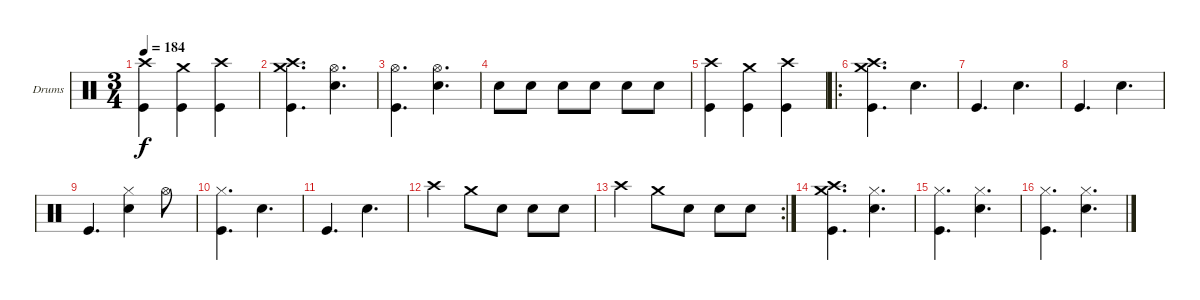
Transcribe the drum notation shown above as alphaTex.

\bracketExtendMode groupsimilarinstruments
\firstSystemTrackNameOrientation horizontal
\otherSystemsTrackNameOrientation horizontal
\track ("Drumkit" "Drums") {instrument percussion}
\staff {score}
\articulation defaults
\ts (3 4)
\tempo 184
\clef neutral
\ks c
("Crash high (hit)" "Kick (hit)").4{dy f} ("Crash medium (hit)" "Kick (hit)").4 ("Crash high (hit)" "Kick (hit)").4 |
("Crash high (hit)" "Crash medium (hit)" "Kick (hit)").4{d} ("Hi-Hat (open)" "Snare (hit) 2").4{d} |
("Hi-Hat (open)" "Kick (hit)").4{d} ("Hi-Hat (open)" "Snare (hit) 2").4{d} |
"Snare (hit) 2".8 "Snare (hit) 2".8 "Snare (hit) 2".8 "Snare (hit) 2".8 "Snare (hit) 2".8 "Snare (hit) 2".8 |
("Crash high (hit)" "Kick (hit)").4 ("Crash medium (hit)" "Kick (hit)").4 ("Crash high (hit)" "Kick (hit)").4 |
\ro
("Crash high (hit)" "Crash medium (hit)" "Kick (hit)").4{d} "Snare (hit) 2".4{d} |
"Kick (hit)".4{d} "Snare (hit) 2".4{d} |
"Kick (hit)".4{d} "Snare (hit) 2".4{d} |
"Kick (hit)".4{d} ("Hi-Hat (closed)" "Snare (hit) 2").4 "Hi-Hat (open)".8 |
("Hi-Hat (closed)" "Kick (hit)").4{d} "Snare (hit) 2".4{d} |
"Kick (hit)".4{d} "Snare (hit) 2".4{d} |
"Crash high (hit)".4 "Crash medium (hit)".8 "Snare (hit) 2".8 "Snare (hit) 2".8 "Snare (hit) 2".8 |
\rc 2 "Crash high (hit)".4 "Crash medium (hit)".8 "Snare (hit) 2".8 "Snare (hit) 2".8 "Snare (hit) 2".8
|
("Crash high (hit)" "Crash medium (hit)" "Kick (hit)").4{d} ("Snare (hit) 2" "Hi-Hat (closed)").4{d} |
("Hi-Hat (closed)" "Kick (hit)").4{d} ("Snare (hit) 2" "Hi-Hat (closed)").4{d} |
("Hi-Hat (closed)" "Kick (hit)").4{d} ("Snare (hit) 2" "Hi-Hat (closed)").4{d}
